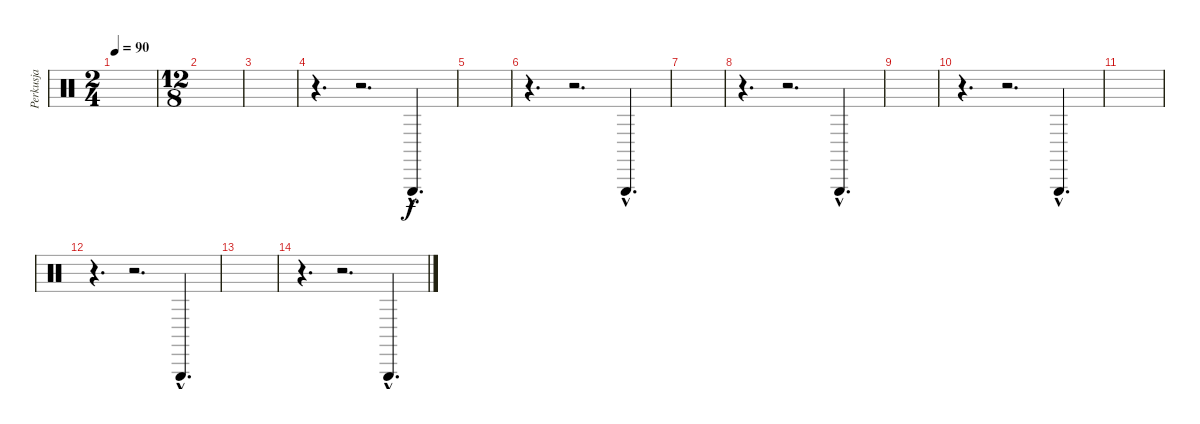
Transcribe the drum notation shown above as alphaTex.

\track ("Perkusja" "Perkusja") {instrument percussion}
\staff {score}
\articulation defaults
\ts (2 4)
\tempo 90
\clef neutral
\ks c
|
\ts (12 8)
|
|
r.4{d} r.2{d} "Triangle (hit)"{hac}.4{d} |
|
r.4{d} r.2{d} "Triangle (hit)"{hac}.4{d} |
|
r.4{d} r.2{d} "Triangle (hit)"{hac}.4{d} |
|
r.4{d} r.2{d} "Triangle (hit)"{hac}.4{d} |
|
r.4{d} r.2{d} "Triangle (hit)"{hac}.4{d} |
|
r.4{d} r.2{d} "Triangle (hit)"{hac}.4{d}
